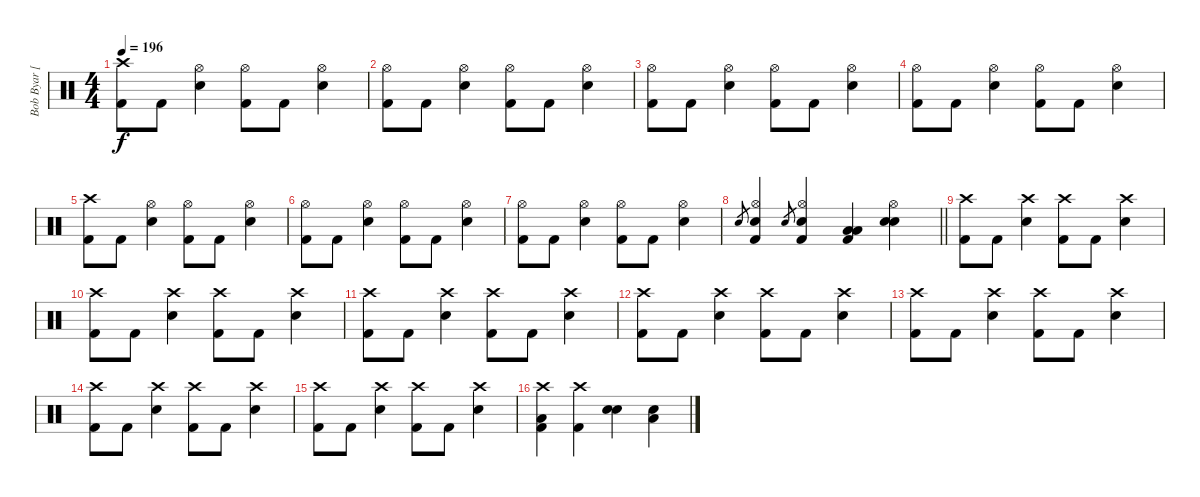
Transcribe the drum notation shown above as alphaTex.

\track ("Bob Byar [Drums]" "Bob Byar [") {instrument percussion}
\staff {score}
\articulation defaults
\ts (4 4)
\tempo 196
\clef neutral
\ks c
("Crash high (hit)" "Kick (hit) 2").8{dy f} "Kick (hit) 2".8 ("Hi-Hat (open)" "Electric Snare (hit)").4 ("Hi-Hat (open)" "Kick (hit) 2").8 "Kick (hit) 2".8 ("Hi-Hat (open)" "Electric Snare (hit)").4 |
("Hi-Hat (open)" "Kick (hit) 2").8 "Kick (hit) 2".8 ("Hi-Hat (open)" "Electric Snare (hit)").4 ("Hi-Hat (open)" "Kick (hit) 2").8 "Kick (hit) 2".8 ("Hi-Hat (open)" "Electric Snare (hit)").4 |
("Hi-Hat (open)" "Kick (hit) 2").8 "Kick (hit) 2".8 ("Hi-Hat (open)" "Electric Snare (hit)").4 ("Hi-Hat (open)" "Kick (hit) 2").8 "Kick (hit) 2".8 ("Hi-Hat (open)" "Electric Snare (hit)").4 |
("Hi-Hat (open)" "Kick (hit) 2").8 "Kick (hit) 2".8 ("Hi-Hat (open)" "Electric Snare (hit)").4 ("Hi-Hat (open)" "Kick (hit) 2").8 "Kick (hit) 2".8 ("Hi-Hat (open)" "Electric Snare (hit)").4 |
("Crash high (hit)" "Kick (hit) 2").8 "Kick (hit) 2".8 ("Hi-Hat (open)" "Electric Snare (hit)").4 ("Hi-Hat (open)" "Kick (hit) 2").8 "Kick (hit) 2".8 ("Hi-Hat (open)" "Electric Snare (hit)").4 |
("Hi-Hat (open)" "Kick (hit) 2").8 "Kick (hit) 2".8 ("Hi-Hat (open)" "Electric Snare (hit)").4 ("Hi-Hat (open)" "Kick (hit) 2").8 "Kick (hit) 2".8 ("Hi-Hat (open)" "Electric Snare (hit)").4 |
("Hi-Hat (open)" "Kick (hit) 2").8 "Kick (hit) 2".8 ("Hi-Hat (open)" "Electric Snare (hit)").4 ("Hi-Hat (open)" "Kick (hit) 2").8 "Kick (hit) 2".8 ("Hi-Hat (open)" "Electric Snare (hit)").4 |
\barLineRight lightlight "Electric Snare (hit)".8{gr}
("Hi-Hat (open)" "Electric Snare (hit)" "Kick (hit) 2").4 "Electric Snare (hit)".8{gr} ("Hi-Hat (open)" "Electric Snare (hit)" "Kick (hit) 2").4 ("Low Floor Tom (hit)" "Low Floor Tom (hit)" "Kick (hit) 2").4 ("Hi-Hat (open)" "Electric Snare (hit)" "Electric Snare (hit)").4 |
("Crash high (hit)" "Kick (hit) 2").8 "Kick (hit) 2".8 ("Crash high (hit)" "Electric Snare (hit)").4 ("Crash high (hit)" "Kick (hit) 2").8 "Kick (hit) 2".8 ("Crash high (hit)" "Electric Snare (hit)").4 |
("Crash high (hit)" "Kick (hit) 2").8 "Kick (hit) 2".8 ("Crash high (hit)" "Electric Snare (hit)").4 ("Crash high (hit)" "Kick (hit) 2").8 "Kick (hit) 2".8 ("Crash high (hit)" "Electric Snare (hit)").4 |
("Crash high (hit)" "Kick (hit) 2").8 "Kick (hit) 2".8 ("Crash high (hit)" "Electric Snare (hit)").4 ("Crash high (hit)" "Kick (hit) 2").8 "Kick (hit) 2".8 ("Crash high (hit)" "Electric Snare (hit)").4 |
("Crash high (hit)" "Kick (hit) 2").8 "Kick (hit) 2".8 ("Crash high (hit)" "Electric Snare (hit)").4 ("Crash high (hit)" "Kick (hit) 2").8 "Kick (hit) 2".8 ("Crash high (hit)" "Electric Snare (hit)").4 |
("Crash high (hit)" "Kick (hit) 2").8 "Kick (hit) 2".8 ("Crash high (hit)" "Electric Snare (hit)").4 ("Crash high (hit)" "Kick (hit) 2").8 "Kick (hit) 2".8 ("Crash high (hit)" "Electric Snare (hit)").4 |
("Crash high (hit)" "Kick (hit) 2").8 "Kick (hit) 2".8 ("Crash high (hit)" "Electric Snare (hit)").4 ("Crash high (hit)" "Kick (hit) 2").8 "Kick (hit) 2".8 ("Crash high (hit)" "Electric Snare (hit)").4 |
("Crash high (hit)" "Kick (hit) 2").8 "Kick (hit) 2".8 ("Crash high (hit)" "Electric Snare (hit)").4 ("Crash high (hit)" "Kick (hit) 2").8 "Kick (hit) 2".8 ("Crash high (hit)" "Electric Snare (hit)").4 |
("Crash high (hit)" "Low Floor Tom (hit)" "Kick (hit) 2").4 ("Crash high (hit)" "Kick (hit) 2").4 ("Electric Snare (hit)" "Electric Snare (hit)").4 ("Electric Snare (hit)" "Low Floor Tom (hit)").4
